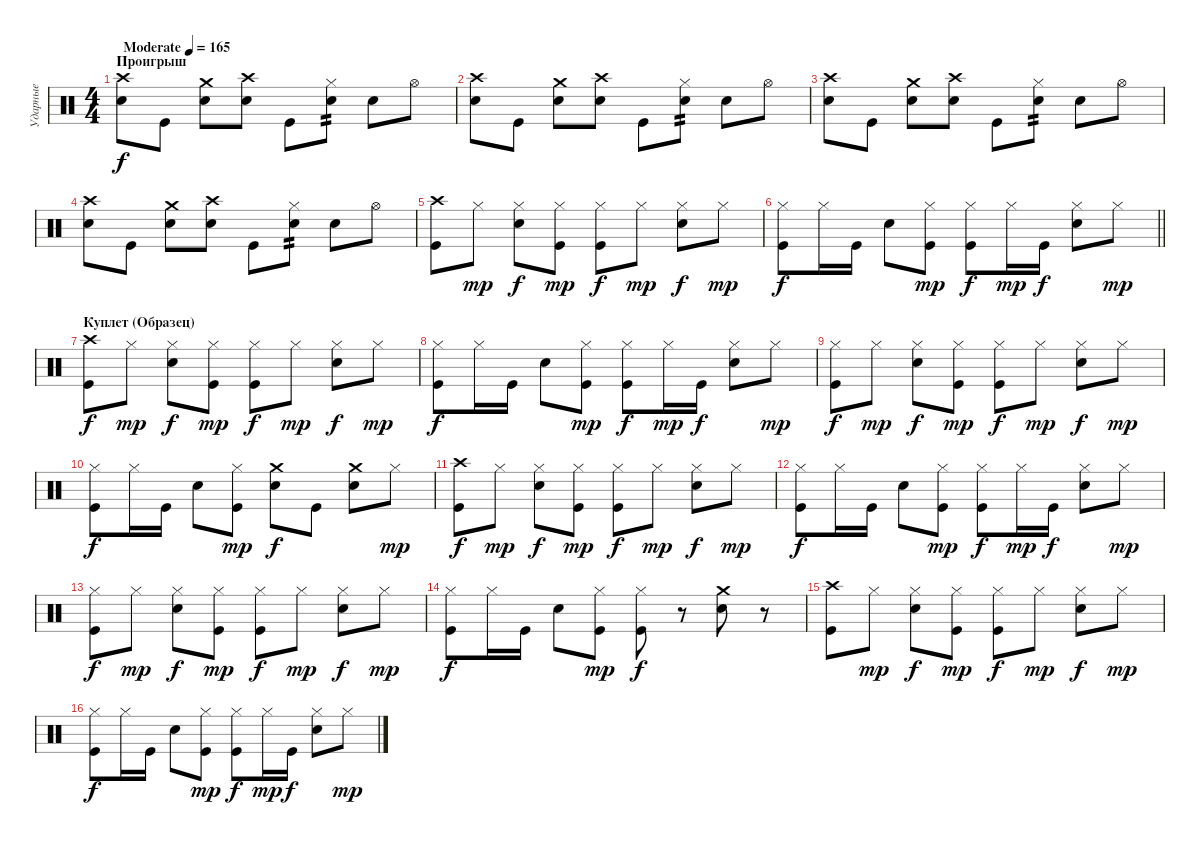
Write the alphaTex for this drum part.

\track ("Ударные" "Ударные") {instrument percussion}
\staff {score}
\articulation defaults
\ts (4 4)
\section ("" "Проигрыш")
\tempo (165 "Moderate")
\clef neutral
\ks c
("Crash high (hit)" "Snare (hit) 2").8{dy f} "Kick (hit)".8 ("Crash medium (hit)" "Snare (hit) 2").8 ("Crash high (hit)" "Snare (hit) 2").8 "Kick (hit)".8 ("Hi-Hat (closed)" "Snare (hit) 2").8{tp 2} "Snare (hit) 2".8 "Hi-Hat (open)".8 |
("Crash high (hit)" "Snare (hit) 2").8 "Kick (hit)".8 ("Crash medium (hit)" "Snare (hit) 2").8 ("Crash high (hit)" "Snare (hit) 2").8 "Kick (hit)".8 ("Hi-Hat (closed)" "Snare (hit) 2").8{tp 2} "Snare (hit) 2".8 "Hi-Hat (open)".8 |
("Crash high (hit)" "Snare (hit) 2").8 "Kick (hit)".8 ("Crash medium (hit)" "Snare (hit) 2").8 ("Crash high (hit)" "Snare (hit) 2").8 "Kick (hit)".8 ("Hi-Hat (closed)" "Snare (hit) 2").8{tp 2} "Snare (hit) 2".8 "Hi-Hat (open)".8 |
("Crash high (hit)" "Snare (hit) 2").8 "Kick (hit)".8 ("Crash medium (hit)" "Snare (hit) 2").8 ("Crash high (hit)" "Snare (hit) 2").8 "Kick (hit)".8 ("Hi-Hat (closed)" "Snare (hit) 2").8{tp 2} "Snare (hit) 2".8 "Hi-Hat (open)".8 |
("Crash high (hit)" "Kick (hit)").8 "Hi-Hat (closed)".8{dy mp} ("Hi-Hat (closed)" "Snare (hit) 2").8{dy f} ("Hi-Hat (closed)" "Kick (hit)").8{dy mp} ("Hi-Hat (closed)" "Kick (hit)").8{dy f} "Hi-Hat (closed)".8{dy mp} ("Hi-Hat (closed)" "Snare (hit) 2").8{dy f} "Hi-Hat (closed)".8{dy mp} |
\barLineRight lightlight
("Hi-Hat (closed)" "Kick (hit)").8{dy f} "Hi-Hat (closed)".16 "Kick (hit)".16 "Snare (hit) 2".8 ("Hi-Hat (closed)" "Kick (hit)").8{dy mp} ("Hi-Hat (closed)" "Kick (hit)").8{dy f} "Hi-Hat (closed)".16{dy mp} "Kick (hit)".16{dy f} ("Hi-Hat (closed)" "Snare (hit) 2").8 "Hi-Hat (closed)".8{dy mp} |
\section ("" "Куплет (Образец)")
("Crash high (hit)" "Kick (hit)").8{dy f} "Hi-Hat (closed)".8{dy mp} ("Hi-Hat (closed)" "Snare (hit) 2").8{dy f} ("Hi-Hat (closed)" "Kick (hit)").8{dy mp} ("Hi-Hat (closed)" "Kick (hit)").8{dy f} "Hi-Hat (closed)".8{dy mp} ("Hi-Hat (closed)" "Snare (hit) 2").8{dy f} "Hi-Hat (closed)".8{dy mp} |
("Hi-Hat (closed)" "Kick (hit)").8{dy f} "Hi-Hat (closed)".16 "Kick (hit)".16 "Snare (hit) 2".8 ("Hi-Hat (closed)" "Kick (hit)").8{dy mp} ("Hi-Hat (closed)" "Kick (hit)").8{dy f} "Hi-Hat (closed)".16{dy mp} "Kick (hit)".16{dy f} ("Hi-Hat (closed)" "Snare (hit) 2").8 "Hi-Hat (closed)".8{dy mp} |
("Hi-Hat (closed)" "Kick (hit)").8{dy f} "Hi-Hat (closed)".8{dy mp} ("Hi-Hat (closed)" "Snare (hit) 2").8{dy f} ("Hi-Hat (closed)" "Kick (hit)").8{dy mp} ("Hi-Hat (closed)" "Kick (hit)").8{dy f} "Hi-Hat (closed)".8{dy mp} ("Hi-Hat (closed)" "Snare (hit) 2").8{dy f} "Hi-Hat (closed)".8{dy mp} |
("Hi-Hat (closed)" "Kick (hit)").8{dy f} "Hi-Hat (closed)".16 "Kick (hit)".16 "Snare (hit) 2".8 ("Hi-Hat (closed)" "Kick (hit)").8{dy mp} ("Crash medium (hit)" "Snare (hit) 2").8{dy f} "Kick (hit)".8 ("Crash medium (hit)" "Snare (hit) 2").8 "Hi-Hat (closed)".8{dy mp} |
("Crash high (hit)" "Kick (hit)").8{dy f} "Hi-Hat (closed)".8{dy mp} ("Hi-Hat (closed)" "Snare (hit) 2").8{dy f} ("Hi-Hat (closed)" "Kick (hit)").8{dy mp} ("Hi-Hat (closed)" "Kick (hit)").8{dy f} "Hi-Hat (closed)".8{dy mp} ("Hi-Hat (closed)" "Snare (hit) 2").8{dy f} "Hi-Hat (closed)".8{dy mp} |
("Hi-Hat (closed)" "Kick (hit)").8{dy f} "Hi-Hat (closed)".16 "Kick (hit)".16 "Snare (hit) 2".8 ("Hi-Hat (closed)" "Kick (hit)").8{dy mp} ("Hi-Hat (closed)" "Kick (hit)").8{dy f} "Hi-Hat (closed)".16{dy mp} "Kick (hit)".16{dy f} ("Hi-Hat (closed)" "Snare (hit) 2").8 "Hi-Hat (closed)".8{dy mp} |
("Hi-Hat (closed)" "Kick (hit)").8{dy f} "Hi-Hat (closed)".8{dy mp} ("Hi-Hat (closed)" "Snare (hit) 2").8{dy f} ("Hi-Hat (closed)" "Kick (hit)").8{dy mp} ("Hi-Hat (closed)" "Kick (hit)").8{dy f} "Hi-Hat (closed)".8{dy mp} ("Hi-Hat (closed)" "Snare (hit) 2").8{dy f} "Hi-Hat (closed)".8{dy mp} |
("Hi-Hat (closed)" "Kick (hit)").8{dy f} "Hi-Hat (closed)".16 "Kick (hit)".16 "Snare (hit) 2".8 ("Hi-Hat (closed)" "Kick (hit)").8{dy mp} ("Hi-Hat (closed)" "Kick (hit)").8{dy f} r.8 ("Crash medium (hit)" "Snare (hit) 2").8 r.8 |
("Crash high (hit)" "Kick (hit)").8 "Hi-Hat (closed)".8{dy mp} ("Hi-Hat (closed)" "Snare (hit) 2").8{dy f} ("Hi-Hat (closed)" "Kick (hit)").8{dy mp} ("Hi-Hat (closed)" "Kick (hit)").8{dy f} "Hi-Hat (closed)".8{dy mp} ("Hi-Hat (closed)" "Snare (hit) 2").8{dy f} "Hi-Hat (closed)".8{dy mp} |
("Hi-Hat (closed)" "Kick (hit)").8{dy f} "Hi-Hat (closed)".16 "Kick (hit)".16 "Snare (hit) 2".8 ("Hi-Hat (closed)" "Kick (hit)").8{dy mp} ("Hi-Hat (closed)" "Kick (hit)").8{dy f} "Hi-Hat (closed)".16{dy mp} "Kick (hit)".16{dy f} ("Hi-Hat (closed)" "Snare (hit) 2").8 "Hi-Hat (closed)".8{dy mp}
